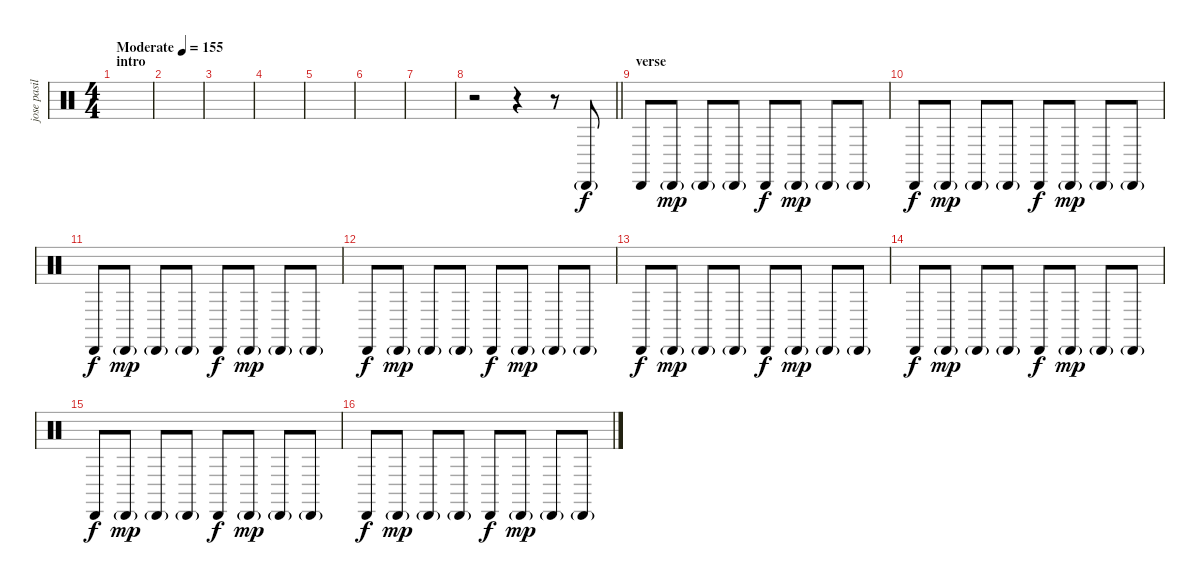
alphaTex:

\track ("jose pasillas" "jose pasil") {instrument percussion}
\staff {score}
\articulation defaults
\ts (4 4)
\section ("" "intro")
\tempo (155 "Moderate")
\clef neutral
\ks c
|
|
|
|
|
|
|
\barLineRight lightlight
r.2 r.4 r.8 "Cabasa (hit)"{g}.8 |
\section ("" "verse")
"Cabasa (hit)".8{dy f} "Cabasa (hit)"{g}.8{dy mp} "Cabasa (hit)"{g}.8 "Cabasa (hit)"{g}.8 "Cabasa (hit)".8{dy f} "Cabasa (hit)"{g}.8{dy mp} "Cabasa (hit)"{g}.8 "Cabasa (hit)"{g}.8 |
"Cabasa (hit)".8{dy f} "Cabasa (hit)"{g}.8{dy mp} "Cabasa (hit)"{g}.8 "Cabasa (hit)"{g}.8 "Cabasa (hit)".8{dy f} "Cabasa (hit)"{g}.8{dy mp} "Cabasa (hit)"{g}.8 "Cabasa (hit)"{g}.8 |
"Cabasa (hit)".8{dy f} "Cabasa (hit)"{g}.8{dy mp} "Cabasa (hit)"{g}.8 "Cabasa (hit)"{g}.8 "Cabasa (hit)".8{dy f} "Cabasa (hit)"{g}.8{dy mp} "Cabasa (hit)"{g}.8 "Cabasa (hit)"{g}.8 |
"Cabasa (hit)".8{dy f} "Cabasa (hit)"{g}.8{dy mp} "Cabasa (hit)"{g}.8 "Cabasa (hit)"{g}.8 "Cabasa (hit)".8{dy f} "Cabasa (hit)"{g}.8{dy mp} "Cabasa (hit)"{g}.8 "Cabasa (hit)"{g}.8 |
"Cabasa (hit)".8{dy f} "Cabasa (hit)"{g}.8{dy mp} "Cabasa (hit)"{g}.8 "Cabasa (hit)"{g}.8 "Cabasa (hit)".8{dy f} "Cabasa (hit)"{g}.8{dy mp} "Cabasa (hit)"{g}.8 "Cabasa (hit)"{g}.8 |
"Cabasa (hit)".8{dy f} "Cabasa (hit)"{g}.8{dy mp} "Cabasa (hit)"{g}.8 "Cabasa (hit)"{g}.8 "Cabasa (hit)".8{dy f} "Cabasa (hit)"{g}.8{dy mp} "Cabasa (hit)"{g}.8 "Cabasa (hit)"{g}.8 |
"Cabasa (hit)".8{dy f} "Cabasa (hit)"{g}.8{dy mp} "Cabasa (hit)"{g}.8 "Cabasa (hit)"{g}.8 "Cabasa (hit)".8{dy f} "Cabasa (hit)"{g}.8{dy mp} "Cabasa (hit)"{g}.8 "Cabasa (hit)"{g}.8 |
"Cabasa (hit)".8{dy f} "Cabasa (hit)"{g}.8{dy mp} "Cabasa (hit)"{g}.8 "Cabasa (hit)"{g}.8 "Cabasa (hit)".8{dy f} "Cabasa (hit)"{g}.8{dy mp} "Cabasa (hit)"{g}.8 "Cabasa (hit)"{g}.8
